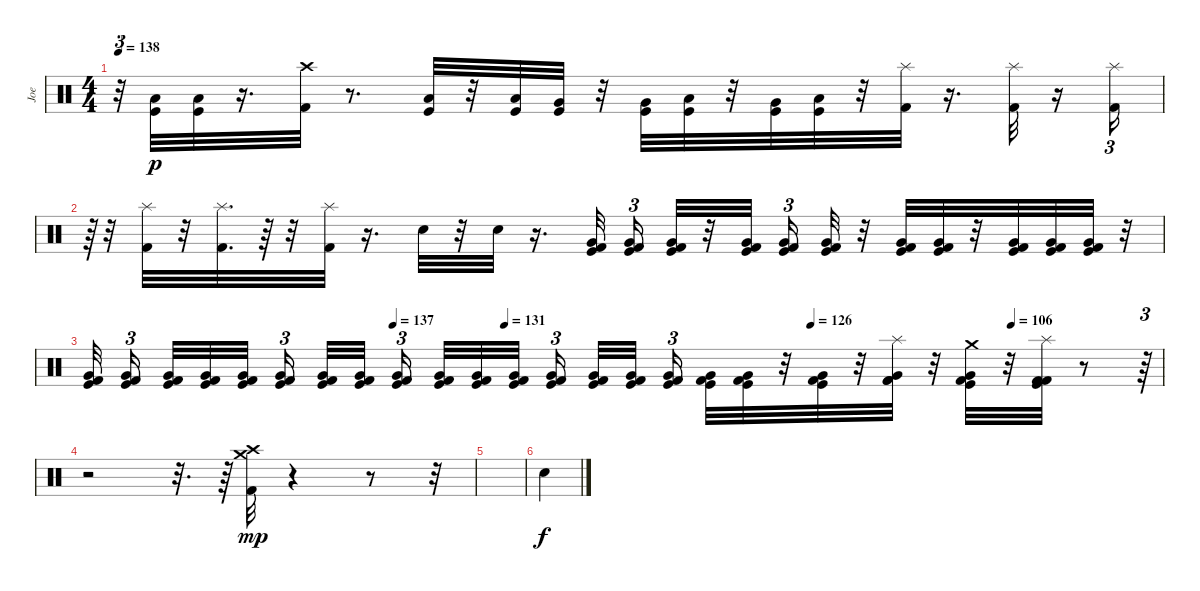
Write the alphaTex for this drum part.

\track ("Joe" "Joe") {instrument percussion}
\staff {score}
\articulation defaults
\ts (4 4)
\tempo 138
\clef neutral
\ks c
r.32{tu (3 2) dy mf} ("Low Floor Tom (hit)" "Kick (hit)").32{dy p} ("Low Floor Tom (hit)" "Kick (hit)").32 r.16{d} ("Kick (hit) 2" "Crash high (hit)").32 r.8{d} ("Low Tom (hit)" "Kick (hit)").32 r.32 ("Low Tom (hit)" "Kick (hit)").32 ("Very Low Tom (hit)" "Kick (hit)").32 r.32 ("Very Low Tom (hit)" "Kick (hit)").32 ("Low Floor Tom (hit)" "Kick (hit)").32 r.32 ("Very Low Tom (hit)" "Kick (hit)").32 ("Low Floor Tom (hit)" "Kick (hit)").32 r.32 ("Splash (hit)" "Kick (hit) 2").32 r.16{d} ("Kick (hit) 2" "Splash (hit)").32 r.16 ("Kick (hit) 2" "Splash (hit)").16{tu (3 2)} |
r.64{tu (3 2)} r.32 ("Kick (hit) 2" "Splash (hit)").32 r.32 ("Kick (hit) 2" "Splash (hit)").32{d} r.64 r.32 ("Splash (hit)" "Kick (hit) 2").32 r.16{d} "Electric Snare (hit)".32 r.32 "Electric Snare (hit)".32 r.16{d} ("Very Low Tom (hit)" "Kick (hit)" "Kick (hit) 2").32{beam splitsecondary} ("Very Low Tom (hit)" "Kick (hit)" "Kick (hit) 2").16{tu (3 2)} ("Very Low Tom (hit)" "Kick (hit)" "Kick (hit) 2").32 r.32 ("Very Low Tom (hit)" "Kick (hit)" "Kick (hit) 2").32{beam splitsecondary} ("Very Low Tom (hit)" "Kick (hit)" "Kick (hit) 2").16{tu (3 2)} ("Very Low Tom (hit)" "Kick (hit)" "Kick (hit) 2").32 r.32 ("Very Low Tom (hit)" "Kick (hit)" "Kick (hit) 2").32 ("Very Low Tom (hit)" "Kick (hit)" "Kick (hit) 2").32 r.32 ("Very Low Tom (hit)" "Kick (hit)" "Kick (hit) 2").32 ("Very Low Tom (hit)" "Kick (hit)" "Kick (hit) 2").32 ("Very Low Tom (hit)" "Kick (hit)" "Kick (hit) 2").32 r.32 |
\tempo (137 0.28125)
\tempo (131 0.3854166666666667)
\tempo (126 0.671875)
\tempo (106 0.859375)
("Very Low Tom (hit)" "Kick (hit)" "Kick (hit) 2").32{beam splitsecondary} ("Very Low Tom (hit)" "Kick (hit)" "Kick (hit) 2").16{tu (3 2) beam splitsecondary} ("Very Low Tom (hit)" "Kick (hit)" "Kick (hit) 2").32 ("Very Low Tom (hit)" "Kick (hit)" "Kick (hit) 2").32 ("Very Low Tom (hit)" "Kick (hit)" "Kick (hit) 2").32{beam splitsecondary} ("Very Low Tom (hit)" "Kick (hit)" "Kick (hit) 2").16{tu (3 2) beam splitsecondary} ("Very Low Tom (hit)" "Kick (hit)" "Kick (hit) 2").32 ("Very Low Tom (hit)" "Kick (hit)" "Kick (hit) 2").32 ("Very Low Tom (hit)" "Kick (hit)" "Kick (hit) 2").16{tu (3 2) beam splitsecondary} ("Very Low Tom (hit)" "Kick (hit)" "Kick (hit) 2").32 ("Very Low Tom (hit)" "Kick (hit)" "Kick (hit) 2").32 ("Very Low Tom (hit)" "Kick (hit)" "Kick (hit) 2").32{beam splitsecondary} ("Very Low Tom (hit)" "Kick (hit)" "Kick (hit) 2").16{tu (3 2) beam splitsecondary} ("Very Low Tom (hit)" "Kick (hit)" "Kick (hit) 2").32 ("Very Low Tom (hit)" "Kick (hit)" "Kick (hit) 2").32 ("Very Low Tom (hit)" "Kick (hit)" "Kick (hit) 2").16{tu (3 2) beam splitsecondary} ("Very Low Tom (hit)" "Kick (hit)" "Kick (hit) 2").32 ("Very Low Tom (hit)" "Kick (hit)" "Kick (hit) 2").32 r.32 ("Very Low Tom (hit)" "Kick (hit)" "Kick (hit) 2").32 r.32 ("Kick (hit) 2" "Splash (hit)" "Kick (hit) 2" "Very Low Tom (hit)").32 r.32 ("Kick (hit) 2" "Crash medium (hit)" "Kick (hit)" "Very Low Tom (hit)").32 r.32 ("Kick (hit) 2" "Splash (hit)" "Kick (hit)" "Kick (hit) 2").32 r.8 r.64{tu (3 2)} |
r.2 r.32{d} r.64 ("Kick (hit) 2" "Crash high (hit)" "Crash medium (hit)").32{dy mp} r.4 r.8 r.32 |
|
"Snare (hit)".4{dy f}
